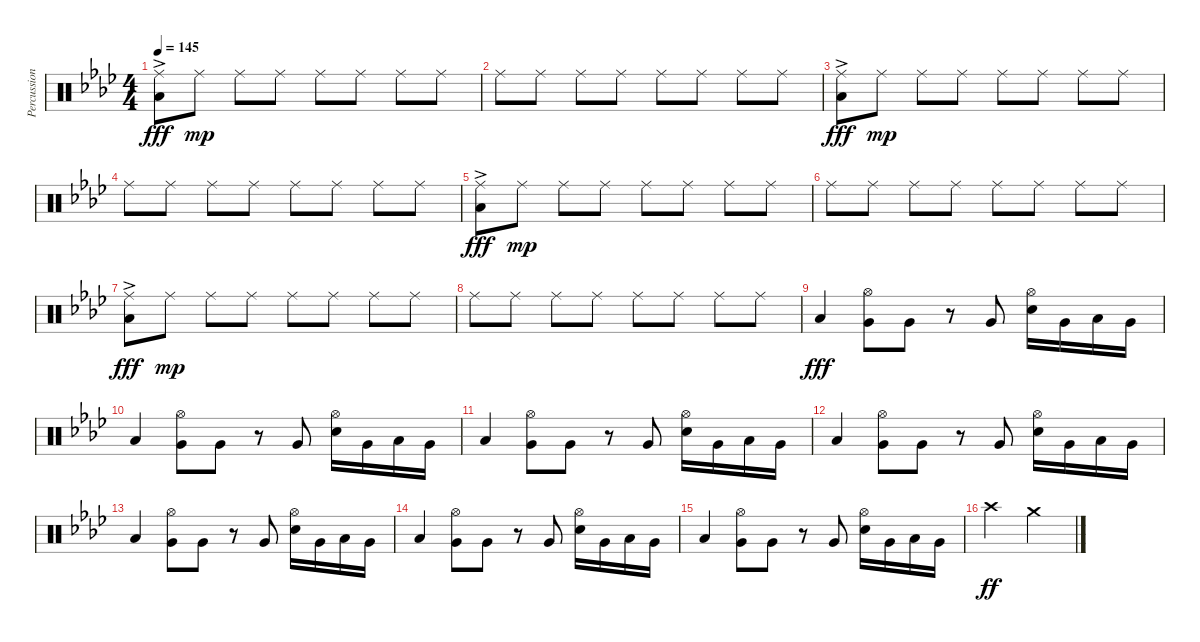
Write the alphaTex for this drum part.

\track ("Percussion" "Percussion") {instrument percussion}
\staff {score}
\articulation defaults
\ts (4 4)
\tempo 145
\clef neutral
\ks ab
("Ride (middle)" "Low Floor Tom (hit)"{ac}).8{dy fff} "Ride (middle)".8{dy mp} "Ride (middle)".8 "Ride (middle)".8 "Ride (middle)".8 "Ride (middle)".8 "Ride (middle)".8 "Ride (middle)".8 |
"Ride (middle)".8 "Ride (middle)".8 "Ride (middle)".8 "Ride (middle)".8 "Ride (middle)".8 "Ride (middle)".8 "Ride (middle)".8 "Ride (middle)".8 |
("Ride (middle)" "Low Floor Tom (hit)"{ac}).8{dy fff} "Ride (middle)".8{dy mp} "Ride (middle)".8 "Ride (middle)".8 "Ride (middle)".8 "Ride (middle)".8 "Ride (middle)".8 "Ride (middle)".8 |
"Ride (middle)".8 "Ride (middle)".8 "Ride (middle)".8 "Ride (middle)".8 "Ride (middle)".8 "Ride (middle)".8 "Ride (middle)".8 "Ride (middle)".8 |
("Ride (middle)" "Low Floor Tom (hit)"{ac}).8{dy fff} "Ride (middle)".8{dy mp} "Ride (middle)".8 "Ride (middle)".8 "Ride (middle)".8 "Ride (middle)".8 "Ride (middle)".8 "Ride (middle)".8 |
"Ride (middle)".8 "Ride (middle)".8 "Ride (middle)".8 "Ride (middle)".8 "Ride (middle)".8 "Ride (middle)".8 "Ride (middle)".8 "Ride (middle)".8 |
("Ride (middle)" "Low Floor Tom (hit)"{ac}).8{dy fff} "Ride (middle)".8{dy mp} "Ride (middle)".8 "Ride (middle)".8 "Ride (middle)".8 "Ride (middle)".8 "Ride (middle)".8 "Ride (middle)".8 |
"Ride (middle)".8 "Ride (middle)".8 "Ride (middle)".8 "Ride (middle)".8 "Ride (middle)".8 "Ride (middle)".8 "Ride (middle)".8 "Ride (middle)".8 |
"Low Floor Tom (hit)".4{dy fff} ("Hi-Hat (open)" "Very Low Tom (hit)").8 "Very Low Tom (hit)".8 r.8 "Very Low Tom (hit)".8 ("Hi-Hat (open)" "Snare (hit) 2").16 "Very Low Tom (hit)".16 "Low Floor Tom (hit)".16 "Very Low Tom (hit)".16 |
"Low Floor Tom (hit)".4 ("Hi-Hat (open)" "Very Low Tom (hit)").8 "Very Low Tom (hit)".8 r.8 "Very Low Tom (hit)".8 ("Hi-Hat (open)" "Snare (hit) 2").16 "Very Low Tom (hit)".16 "Low Floor Tom (hit)".16 "Very Low Tom (hit)".16 |
"Low Floor Tom (hit)".4 ("Hi-Hat (open)" "Very Low Tom (hit)").8 "Very Low Tom (hit)".8 r.8 "Very Low Tom (hit)".8 ("Hi-Hat (open)" "Snare (hit) 2").16 "Very Low Tom (hit)".16 "Low Floor Tom (hit)".16 "Very Low Tom (hit)".16 |
"Low Floor Tom (hit)".4 ("Hi-Hat (open)" "Very Low Tom (hit)").8 "Very Low Tom (hit)".8 r.8 "Very Low Tom (hit)".8 ("Hi-Hat (open)" "Snare (hit) 2").16 "Very Low Tom (hit)".16 "Low Floor Tom (hit)".16 "Very Low Tom (hit)".16 |
"Low Floor Tom (hit)".4 ("Hi-Hat (open)" "Very Low Tom (hit)").8 "Very Low Tom (hit)".8 r.8 "Very Low Tom (hit)".8 ("Hi-Hat (open)" "Snare (hit) 2").16 "Very Low Tom (hit)".16 "Low Floor Tom (hit)".16 "Very Low Tom (hit)".16 |
"Low Floor Tom (hit)".4 ("Hi-Hat (open)" "Very Low Tom (hit)").8 "Very Low Tom (hit)".8 r.8 "Very Low Tom (hit)".8 ("Hi-Hat (open)" "Snare (hit) 2").16 "Very Low Tom (hit)".16 "Low Floor Tom (hit)".16 "Very Low Tom (hit)".16 |
"Low Floor Tom (hit)".4 ("Hi-Hat (open)" "Very Low Tom (hit)").8 "Very Low Tom (hit)".8 r.8 "Very Low Tom (hit)".8 ("Hi-Hat (open)" "Snare (hit) 2").16 "Very Low Tom (hit)".16 "Low Floor Tom (hit)".16 "Very Low Tom (hit)".16 |
"Crash high (hit)".2{dy ff} "Crash medium (hit)".2
